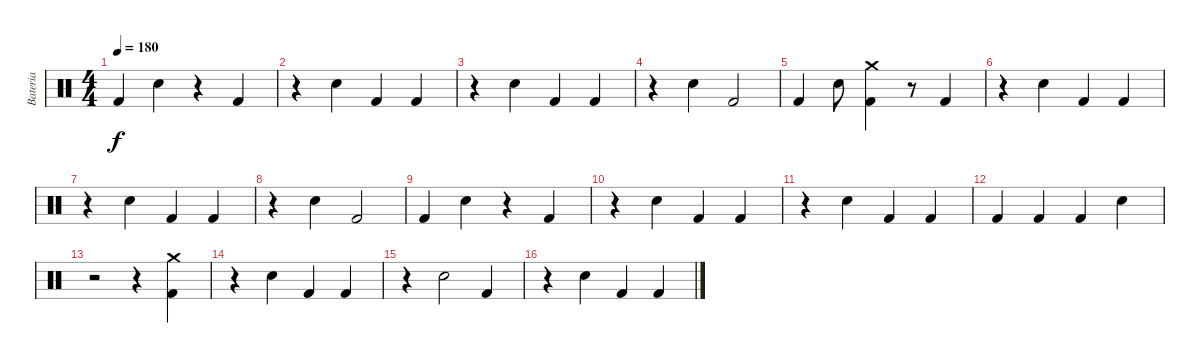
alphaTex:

\track ("Bateria" "Bateria") {instrument percussion}
\staff {score}
\articulation defaults
\ts (4 4)
\tempo 180
\clef neutral
\ks c "Kick (hit) 2".4{dy f} "Electric Snare (hit)".4
r.4 "Kick (hit) 2".4 |
r.4 "Electric Snare (hit)".4 "Kick (hit) 2".4 "Kick (hit) 2".4 |
r.4 "Electric Snare (hit)".4 "Kick (hit) 2".4 "Kick (hit) 2".4 |
r.4 "Electric Snare (hit)".4 "Kick (hit) 2".2 |
"Kick (hit) 2".4 "Electric Snare (hit)".8 ("Kick (hit) 2" "Crash medium (hit)").4 r.8 "Kick (hit) 2".4 |
r.4 "Electric Snare (hit)".4 "Kick (hit) 2".4 "Kick (hit) 2".4 |
r.4 "Electric Snare (hit)".4 "Kick (hit) 2".4 "Kick (hit) 2".4 |
r.4 "Electric Snare (hit)".4 "Kick (hit) 2".2 |
"Kick (hit) 2".4 "Electric Snare (hit)".4 r.4 "Kick (hit) 2".4 |
r.4 "Electric Snare (hit)".4 "Kick (hit) 2".4 "Kick (hit) 2".4 |
r.4 "Electric Snare (hit)".4 "Kick (hit) 2".4 "Kick (hit) 2".4 |
"Kick (hit) 2".4 "Kick (hit) 2".4 "Kick (hit) 2".4 "Electric Snare (hit)".4 |
r.2 r.4 ("Crash medium (hit)" "Kick (hit) 2").4 |
r.4 "Electric Snare (hit)".4 "Kick (hit) 2".4 "Kick (hit) 2".4 |
r.4 "Electric Snare (hit)".2 "Kick (hit) 2".4 |
r.4 "Electric Snare (hit)".4 "Kick (hit) 2".4 "Kick (hit) 2".4
